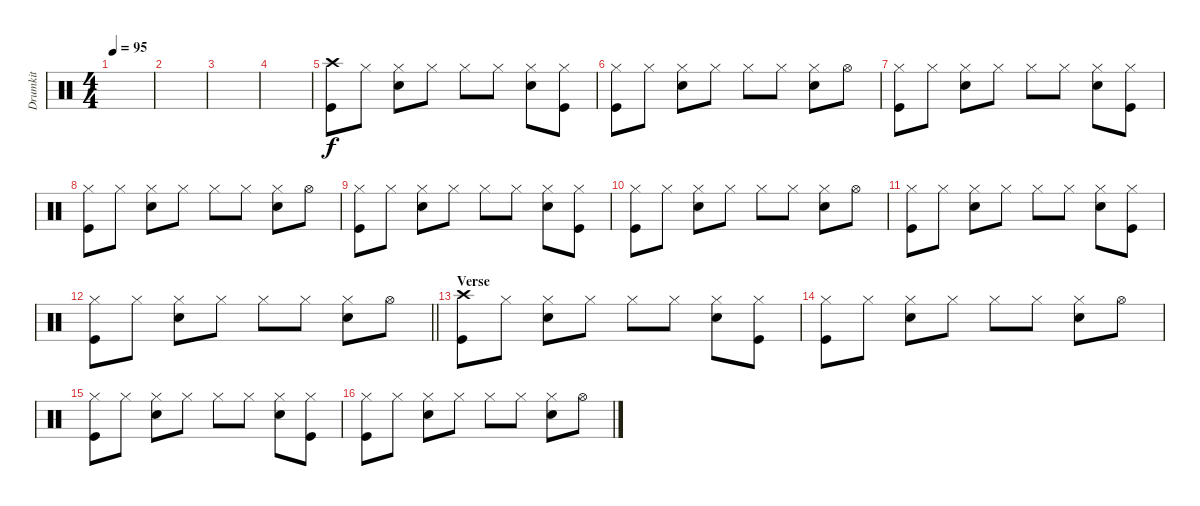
\track ("Drumkit" "Drumkit") {instrument percussion}
\staff {score}
\articulation defaults
\ts (4 4)
\tempo 95
\clef neutral
\ks c
|
|
|
|
("Kick (hit)" "Crash high (hit)").8 "Hi-Hat (closed)".8 ("Snare (hit) 2" "Hi-Hat (closed)").8 "Hi-Hat (closed)".8 "Hi-Hat (closed)".8 "Hi-Hat (closed)".8 ("Hi-Hat (closed)" "Snare (hit) 2").8 ("Kick (hit)" "Hi-Hat (closed)").8 |
("Kick (hit)" "Hi-Hat (closed)").8 "Hi-Hat (closed)".8 ("Snare (hit) 2" "Hi-Hat (closed)").8 "Hi-Hat (closed)".8 "Hi-Hat (closed)".8 "Hi-Hat (closed)".8 ("Hi-Hat (closed)" "Snare (hit) 2").8 "Hi-Hat (open)".8 |
("Kick (hit)" "Hi-Hat (closed)").8 "Hi-Hat (closed)".8 ("Snare (hit) 2" "Hi-Hat (closed)").8 "Hi-Hat (closed)".8 "Hi-Hat (closed)".8 "Hi-Hat (closed)".8 ("Hi-Hat (closed)" "Snare (hit) 2").8 ("Kick (hit)" "Hi-Hat (closed)").8 |
("Kick (hit)" "Hi-Hat (closed)").8 "Hi-Hat (closed)".8 ("Snare (hit) 2" "Hi-Hat (closed)").8 "Hi-Hat (closed)".8 "Hi-Hat (closed)".8 "Hi-Hat (closed)".8 ("Hi-Hat (closed)" "Snare (hit) 2").8 "Hi-Hat (open)".8 |
("Kick (hit)" "Hi-Hat (closed)").8 "Hi-Hat (closed)".8 ("Snare (hit) 2" "Hi-Hat (closed)").8 "Hi-Hat (closed)".8 "Hi-Hat (closed)".8 "Hi-Hat (closed)".8 ("Hi-Hat (closed)" "Snare (hit) 2").8 ("Kick (hit)" "Hi-Hat (closed)").8 |
("Kick (hit)" "Hi-Hat (closed)").8 "Hi-Hat (closed)".8 ("Snare (hit) 2" "Hi-Hat (closed)").8 "Hi-Hat (closed)".8 "Hi-Hat (closed)".8 "Hi-Hat (closed)".8 ("Hi-Hat (closed)" "Snare (hit) 2").8 "Hi-Hat (open)".8 |
("Kick (hit)" "Hi-Hat (closed)").8 "Hi-Hat (closed)".8 ("Snare (hit) 2" "Hi-Hat (closed)").8 "Hi-Hat (closed)".8 "Hi-Hat (closed)".8 "Hi-Hat (closed)".8 ("Hi-Hat (closed)" "Snare (hit) 2").8 ("Kick (hit)" "Hi-Hat (closed)").8 |
\barLineRight lightlight
("Kick (hit)" "Hi-Hat (closed)").8 "Hi-Hat (closed)".8 ("Snare (hit) 2" "Hi-Hat (closed)").8 "Hi-Hat (closed)".8 "Hi-Hat (closed)".8 "Hi-Hat (closed)".8 ("Hi-Hat (closed)" "Snare (hit) 2").8 "Hi-Hat (open)".8 |
\section ("" "Verse")
("Kick (hit)" "Crash high (hit)").8 "Hi-Hat (closed)".8 ("Snare (hit) 2" "Hi-Hat (closed)").8 "Hi-Hat (closed)".8 "Hi-Hat (closed)".8 "Hi-Hat (closed)".8 ("Hi-Hat (closed)" "Snare (hit) 2").8 ("Kick (hit)" "Hi-Hat (closed)").8 |
("Kick (hit)" "Hi-Hat (closed)").8 "Hi-Hat (closed)".8 ("Snare (hit) 2" "Hi-Hat (closed)").8 "Hi-Hat (closed)".8 "Hi-Hat (closed)".8 "Hi-Hat (closed)".8 ("Hi-Hat (closed)" "Snare (hit) 2").8 "Hi-Hat (open)".8 |
("Kick (hit)" "Hi-Hat (closed)").8 "Hi-Hat (closed)".8 ("Snare (hit) 2" "Hi-Hat (closed)").8 "Hi-Hat (closed)".8 "Hi-Hat (closed)".8 "Hi-Hat (closed)".8 ("Hi-Hat (closed)" "Snare (hit) 2").8 ("Kick (hit)" "Hi-Hat (closed)").8 |
("Kick (hit)" "Hi-Hat (closed)").8 "Hi-Hat (closed)".8 ("Snare (hit) 2" "Hi-Hat (closed)").8 "Hi-Hat (closed)".8 "Hi-Hat (closed)".8 "Hi-Hat (closed)".8 ("Hi-Hat (closed)" "Snare (hit) 2").8 "Hi-Hat (open)".8
